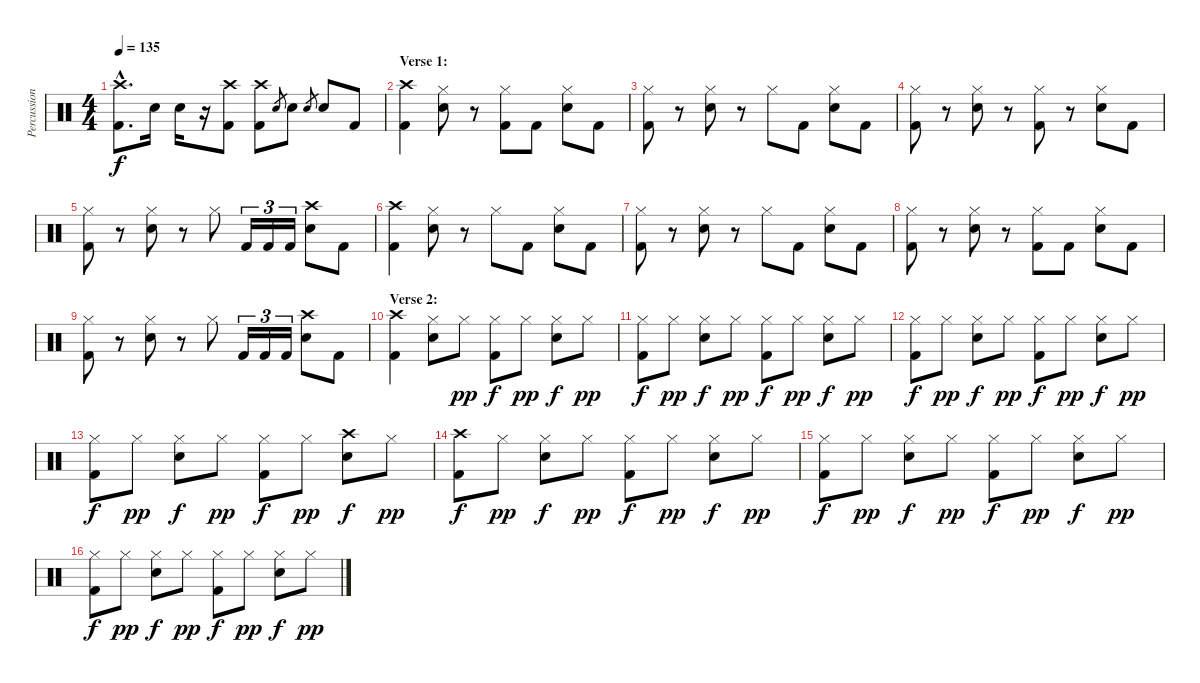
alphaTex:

\track ("Percussion" "Percussion") {instrument percussion}
\staff {score}
\articulation defaults
\ts (4 4)
\tempo 135
\clef neutral
\ks c
("Crash high (hit)"{hac} "Kick (hit) 2"{hac}).8{d dy f} "Snare (hit) 2".16 "Snare (hit) 2".16 r.16 ("Crash high (hit)" "Kick (hit) 2").8 ("Crash high (hit)" "Kick (hit) 2").8 "Snare (hit) 2".8{gr} "Snare (hit) 2".8 "Snare (hit) 2".8{gr} "Snare (hit) 2".8 "Kick (hit) 2".8 |
\section ("" "Verse 1:")
("Crash high (hit)" "Kick (hit) 2").4 ("Hi-Hat (closed)" "Snare (hit) 2").8 r.8 ("Hi-Hat (closed)" "Kick (hit) 2").8 "Kick (hit) 2".8 ("Hi-Hat (closed)" "Snare (hit) 2").8 "Kick (hit) 2".8 |
("Hi-Hat (closed)" "Kick (hit) 2").8 r.8 ("Hi-Hat (closed)" "Snare (hit) 2").8 r.8 "Hi-Hat (closed)".8 "Kick (hit) 2".8 ("Hi-Hat (closed)" "Snare (hit) 2").8 "Kick (hit) 2".8 |
("Hi-Hat (closed)" "Kick (hit) 2").8 r.8 ("Hi-Hat (closed)" "Snare (hit) 2").8 r.8 ("Hi-Hat (closed)" "Kick (hit) 2").8 r.8 ("Hi-Hat (closed)" "Snare (hit) 2").8 "Kick (hit) 2".8 |
("Hi-Hat (closed)" "Kick (hit) 2").8 r.8 ("Hi-Hat (closed)" "Snare (hit) 2").8 r.8 "Hi-Hat (closed)".8 "Kick (hit) 2".16{tu (3 2)} "Kick (hit) 2".16{tu (3 2)} "Kick (hit) 2".16{tu (3 2)} ("Crash high (hit)" "Snare (hit) 2").8 "Kick (hit) 2".8 |
("Crash high (hit)" "Kick (hit) 2").4 ("Hi-Hat (closed)" "Snare (hit) 2").8 r.8 "Hi-Hat (closed)".8 "Kick (hit) 2".8 ("Hi-Hat (closed)" "Snare (hit) 2").8 "Kick (hit) 2".8 |
("Hi-Hat (closed)" "Kick (hit) 2").8 r.8 ("Hi-Hat (closed)" "Snare (hit) 2").8 r.8 "Hi-Hat (closed)".8 "Kick (hit) 2".8 ("Hi-Hat (closed)" "Snare (hit) 2").8 "Kick (hit) 2".8 |
("Hi-Hat (closed)" "Kick (hit) 2").8 r.8 ("Hi-Hat (closed)" "Snare (hit) 2").8 r.8 ("Hi-Hat (closed)" "Kick (hit) 2").8 "Kick (hit) 2".8 ("Hi-Hat (closed)" "Snare (hit) 2").8 "Kick (hit) 2".8 |
("Hi-Hat (closed)" "Kick (hit) 2").8 r.8 ("Hi-Hat (closed)" "Snare (hit) 2").8 r.8 "Hi-Hat (closed)".8 "Kick (hit) 2".16{tu (3 2)} "Kick (hit) 2".16{tu (3 2)} "Kick (hit) 2".16{tu (3 2)} ("Crash high (hit)" "Snare (hit) 2").8 "Kick (hit) 2".8 |
\section ("" "Verse 2:")
("Crash high (hit)" "Kick (hit) 2").4 ("Hi-Hat (closed)" "Snare (hit) 2").8 "Hi-Hat (closed)".8{dy pp} ("Hi-Hat (closed)" "Kick (hit) 2").8{dy f} "Hi-Hat (closed)".8{dy pp} ("Hi-Hat (closed)" "Snare (hit) 2").8{dy f} "Hi-Hat (closed)".8{dy pp} |
("Hi-Hat (closed)" "Kick (hit) 2").8{dy f} "Hi-Hat (closed)".8{dy pp} ("Hi-Hat (closed)" "Snare (hit) 2").8{dy f} "Hi-Hat (closed)".8{dy pp} ("Hi-Hat (closed)" "Kick (hit) 2").8{dy f} "Hi-Hat (closed)".8{dy pp} ("Hi-Hat (closed)" "Snare (hit) 2").8{dy f} "Hi-Hat (closed)".8{dy pp} |
("Hi-Hat (closed)" "Kick (hit) 2").8{dy f} "Hi-Hat (closed)".8{dy pp} ("Hi-Hat (closed)" "Snare (hit) 2").8{dy f} "Hi-Hat (closed)".8{dy pp} ("Hi-Hat (closed)" "Kick (hit) 2").8{dy f} "Hi-Hat (closed)".8{dy pp} ("Hi-Hat (closed)" "Snare (hit) 2").8{dy f} "Hi-Hat (closed)".8{dy pp} |
("Hi-Hat (closed)" "Kick (hit) 2").8{dy f} "Hi-Hat (closed)".8{dy pp} ("Hi-Hat (closed)" "Snare (hit) 2").8{dy f} "Hi-Hat (closed)".8{dy pp} ("Hi-Hat (closed)" "Kick (hit) 2").8{dy f} "Hi-Hat (closed)".8{dy pp} ("Crash high (hit)" "Snare (hit) 2").8{dy f} "Hi-Hat (closed)".8{dy pp} |
("Crash high (hit)" "Kick (hit) 2").8{dy f} "Hi-Hat (closed)".8{dy pp} ("Hi-Hat (closed)" "Snare (hit) 2").8{dy f} "Hi-Hat (closed)".8{dy pp} ("Hi-Hat (closed)" "Kick (hit) 2").8{dy f} "Hi-Hat (closed)".8{dy pp} ("Hi-Hat (closed)" "Snare (hit) 2").8{dy f} "Hi-Hat (closed)".8{dy pp} |
("Hi-Hat (closed)" "Kick (hit) 2").8{dy f} "Hi-Hat (closed)".8{dy pp} ("Hi-Hat (closed)" "Snare (hit) 2").8{dy f} "Hi-Hat (closed)".8{dy pp} ("Hi-Hat (closed)" "Kick (hit) 2").8{dy f} "Hi-Hat (closed)".8{dy pp} ("Hi-Hat (closed)" "Snare (hit) 2").8{dy f} "Hi-Hat (closed)".8{dy pp} |
("Hi-Hat (closed)" "Kick (hit) 2").8{dy f} "Hi-Hat (closed)".8{dy pp} ("Hi-Hat (closed)" "Snare (hit) 2").8{dy f} "Hi-Hat (closed)".8{dy pp} ("Hi-Hat (closed)" "Kick (hit) 2").8{dy f} "Hi-Hat (closed)".8{dy pp} ("Hi-Hat (closed)" "Snare (hit) 2").8{dy f} "Hi-Hat (closed)".8{dy pp}
